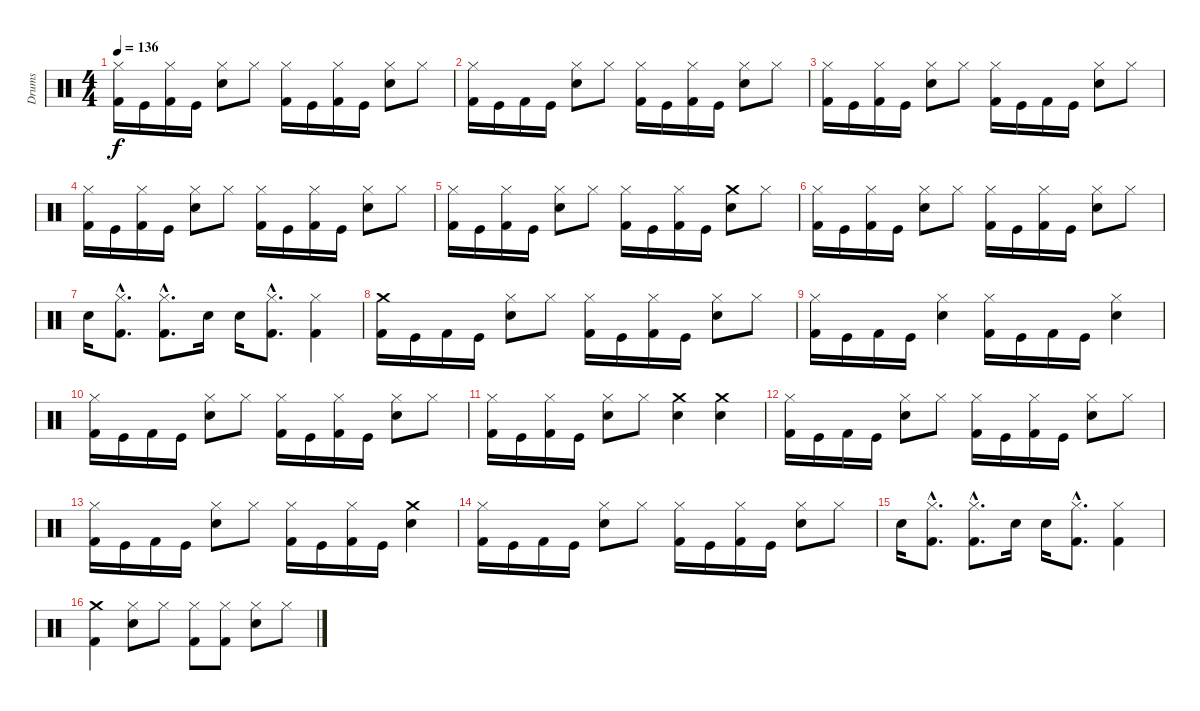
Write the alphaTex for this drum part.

\track ("Drums" "Drums") {instrument percussion}
\staff {score}
\articulation defaults
\ts (4 4)
\tempo 136
\clef neutral
\ks c
("Hi-Hat (closed)" "Kick (hit) 2").16{dy f} "Kick (hit)".16 ("Hi-Hat (closed)" "Kick (hit) 2").16 "Kick (hit)".16 ("Snare (hit) 2" "Hi-Hat (closed)").8 "Hi-Hat (closed)".8 ("Hi-Hat (closed)" "Kick (hit) 2").16 "Kick (hit)".16 ("Hi-Hat (closed)" "Kick (hit) 2").16 "Kick (hit)".16 ("Snare (hit) 2" "Hi-Hat (closed)").8 "Hi-Hat (closed)".8 |
("Hi-Hat (closed)" "Kick (hit) 2").16 "Kick (hit)".16 "Kick (hit) 2".16 "Kick (hit)".16 ("Snare (hit) 2" "Hi-Hat (closed)").8 "Hi-Hat (closed)".8 ("Hi-Hat (closed)" "Kick (hit) 2").16 "Kick (hit)".16 ("Hi-Hat (closed)" "Kick (hit) 2").16 "Kick (hit)".16 ("Snare (hit) 2" "Hi-Hat (closed)").8 "Hi-Hat (closed)".8 |
("Hi-Hat (closed)" "Kick (hit) 2").16 "Kick (hit)".16 ("Hi-Hat (closed)" "Kick (hit) 2").16 "Kick (hit)".16 ("Snare (hit) 2" "Hi-Hat (closed)").8 "Hi-Hat (closed)".8 ("Hi-Hat (closed)" "Kick (hit) 2").16 "Kick (hit)".16 "Kick (hit) 2".16 "Kick (hit)".16 ("Snare (hit) 2" "Hi-Hat (closed)").8 "Hi-Hat (closed)".8 |
("Hi-Hat (closed)" "Kick (hit) 2").16 "Kick (hit)".16 ("Hi-Hat (closed)" "Kick (hit) 2").16 "Kick (hit)".16 ("Snare (hit) 2" "Hi-Hat (closed)").8 "Hi-Hat (closed)".8 ("Hi-Hat (closed)" "Kick (hit) 2").16 "Kick (hit)".16 ("Hi-Hat (closed)" "Kick (hit) 2").16 "Kick (hit)".16 ("Snare (hit) 2" "Hi-Hat (closed)").8 "Hi-Hat (closed)".8 |
("Hi-Hat (closed)" "Kick (hit) 2").16 "Kick (hit)".16 ("Hi-Hat (closed)" "Kick (hit) 2").16 "Kick (hit)".16 ("Snare (hit) 2" "Hi-Hat (closed)").8 "Hi-Hat (closed)".8 ("Hi-Hat (closed)" "Kick (hit) 2").16 "Kick (hit)".16 ("Hi-Hat (closed)" "Kick (hit) 2").16 "Kick (hit)".16 ("Snare (hit) 2" "Crash medium (hit)").8 "Hi-Hat (closed)".8 |
("Hi-Hat (closed)" "Kick (hit) 2").16 "Kick (hit)".16 ("Hi-Hat (closed)" "Kick (hit) 2").16 "Kick (hit)".16 ("Snare (hit) 2" "Hi-Hat (closed)").8 "Hi-Hat (closed)".8 ("Hi-Hat (closed)" "Kick (hit) 2").16 "Kick (hit)".16 ("Hi-Hat (closed)" "Kick (hit) 2").16 "Kick (hit)".16 ("Snare (hit) 2" "Hi-Hat (closed)").8 "Hi-Hat (closed)".8 |
"Snare (hit) 2".16 ("Kick (hit) 2"{hac} "Hi-Hat (closed)"{hac}).8{d} ("Kick (hit) 2"{hac} "Hi-Hat (closed)"{hac}).8{d} "Snare (hit) 2".16 "Snare (hit) 2".16 ("Kick (hit) 2"{hac} "Hi-Hat (closed)"{hac}).8{d} ("Hi-Hat (closed)" "Kick (hit) 2").4 |
("Crash medium (hit)" "Kick (hit) 2").16 "Kick (hit)".16 "Kick (hit) 2".16 "Kick (hit)".16 ("Hi-Hat (closed)" "Snare (hit) 2").8 "Hi-Hat (closed)".8 ("Hi-Hat (closed)" "Kick (hit) 2").16 "Kick (hit)".16 ("Hi-Hat (closed)" "Kick (hit) 2").16 "Kick (hit)".16 ("Snare (hit) 2" "Hi-Hat (closed)").8 "Hi-Hat (closed)".8 |
("Hi-Hat (closed)" "Kick (hit) 2").16 "Kick (hit)".16 "Kick (hit) 2".16 "Kick (hit)".16 ("Snare (hit) 2" "Hi-Hat (closed)").4 ("Hi-Hat (closed)" "Kick (hit) 2").16 "Kick (hit)".16 "Kick (hit) 2".16 "Kick (hit)".16 ("Snare (hit) 2" "Hi-Hat (closed)").4 |
("Hi-Hat (closed)" "Kick (hit) 2").16 "Kick (hit)".16 "Kick (hit) 2".16 "Kick (hit)".16 ("Snare (hit) 2" "Hi-Hat (closed)").8 "Hi-Hat (closed)".8 ("Hi-Hat (closed)" "Kick (hit) 2").16 "Kick (hit)".16 ("Hi-Hat (closed)" "Kick (hit) 2").16 "Kick (hit)".16 ("Snare (hit) 2" "Hi-Hat (closed)").8 "Hi-Hat (closed)".8 |
("Hi-Hat (closed)" "Kick (hit) 2").16 "Kick (hit)".16 ("Hi-Hat (closed)" "Kick (hit) 2").16 "Kick (hit)".16 ("Snare (hit) 2" "Hi-Hat (closed)").8 "Hi-Hat (closed)".8 ("Snare (hit) 2" "Crash medium (hit)").4 ("Snare (hit) 2" "Crash medium (hit)").4 |
("Hi-Hat (closed)" "Kick (hit) 2").16 "Kick (hit)".16 "Kick (hit) 2".16 "Kick (hit)".16 ("Hi-Hat (closed)" "Snare (hit) 2").8 "Hi-Hat (closed)".8 ("Hi-Hat (closed)" "Kick (hit) 2").16 "Kick (hit)".16 ("Hi-Hat (closed)" "Kick (hit) 2").16 "Kick (hit)".16 ("Snare (hit) 2" "Hi-Hat (closed)").8 "Hi-Hat (closed)".8 |
("Hi-Hat (closed)" "Kick (hit) 2").16 "Kick (hit)".16 "Kick (hit) 2".16 "Kick (hit)".16 ("Hi-Hat (closed)" "Snare (hit) 2").8 "Hi-Hat (closed)".8 ("Hi-Hat (closed)" "Kick (hit) 2").16 "Kick (hit)".16 ("Hi-Hat (closed)" "Kick (hit) 2").16 "Kick (hit)".16 ("Crash medium (hit)" "Snare (hit) 2").4 |
("Hi-Hat (closed)" "Kick (hit) 2").16 "Kick (hit)".16 "Kick (hit) 2".16 "Kick (hit)".16 ("Hi-Hat (closed)" "Snare (hit) 2").8 "Hi-Hat (closed)".8 ("Hi-Hat (closed)" "Kick (hit) 2").16 "Kick (hit)".16 ("Hi-Hat (closed)" "Kick (hit) 2").16 "Kick (hit)".16 ("Snare (hit) 2" "Hi-Hat (closed)").8 "Hi-Hat (closed)".8 |
"Snare (hit) 2".16 ("Kick (hit) 2"{hac} "Hi-Hat (closed)"{hac}).8{d} ("Kick (hit) 2"{hac} "Hi-Hat (closed)"{hac}).8{d} "Snare (hit) 2".16 "Snare (hit) 2".16 ("Kick (hit) 2"{hac} "Hi-Hat (closed)"{hac}).8{d} ("Hi-Hat (closed)" "Kick (hit) 2").4 |
("Kick (hit) 2" "Crash medium (hit)").4 ("Hi-Hat (closed)" "Snare (hit) 2").8 "Hi-Hat (closed)".8 ("Kick (hit) 2" "Hi-Hat (closed)").8 ("Kick (hit) 2" "Hi-Hat (closed)").8 ("Snare (hit) 2" "Hi-Hat (closed)").8 "Hi-Hat (closed)".8
